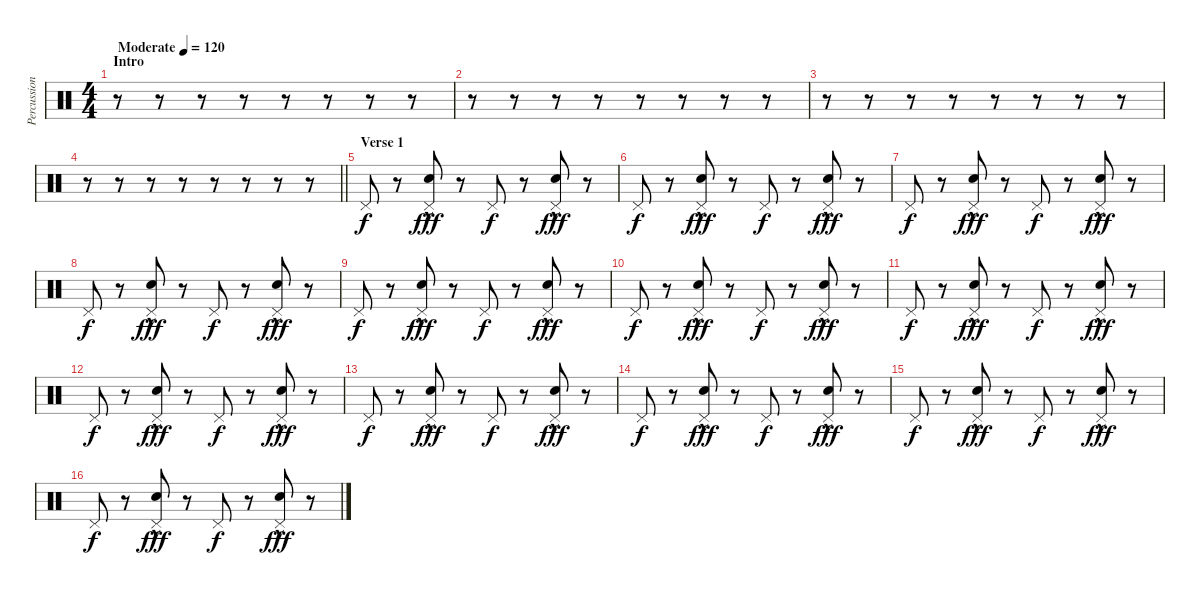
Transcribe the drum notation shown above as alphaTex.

\track ("Percussion" "Percussion") {instrument percussion}
\staff {score}
\articulation defaults
\ts (4 4)
\section ("" "Intro")
\tempo (120 "Moderate")
\tempo 139
\tempo (120 "Moderate")
\clef neutral
\ks c
r.8{dy f} r.8 r.8 r.8 r.8 r.8 r.8 r.8 |
r.8 r.8 r.8 r.8 r.8 r.8 r.8 r.8 |
r.8 r.8 r.8 r.8 r.8 r.8 r.8 r.8 |
\barLineRight lightlight
r.8 r.8 r.8 r.8 r.8 r.8 r.8 r.8 |
\section ("" "Verse 1")
"Pedal Hi-Hat (hit)".8 r.8 ("Snare (hit) 2"{hac} "Pedal Hi-Hat (hit)").8{dy fff} r.8 "Pedal Hi-Hat (hit)".8{dy f} r.8 ("Snare (hit) 2"{hac} "Pedal Hi-Hat (hit)").8{dy fff} r.8 |
"Pedal Hi-Hat (hit)".8{dy f} r.8 ("Snare (hit) 2"{hac} "Pedal Hi-Hat (hit)").8{dy fff} r.8 "Pedal Hi-Hat (hit)".8{dy f} r.8 ("Snare (hit) 2"{hac} "Pedal Hi-Hat (hit)").8{dy fff} r.8 |
"Pedal Hi-Hat (hit)".8{dy f} r.8 ("Snare (hit) 2"{hac} "Pedal Hi-Hat (hit)").8{dy fff} r.8 "Pedal Hi-Hat (hit)".8{dy f} r.8 ("Snare (hit) 2"{hac} "Pedal Hi-Hat (hit)").8{dy fff} r.8 |
"Pedal Hi-Hat (hit)".8{dy f} r.8 ("Snare (hit) 2"{hac} "Pedal Hi-Hat (hit)").8{dy fff} r.8 "Pedal Hi-Hat (hit)".8{dy f} r.8 ("Snare (hit) 2"{hac} "Pedal Hi-Hat (hit)").8{dy fff} r.8 |
"Pedal Hi-Hat (hit)".8{dy f} r.8 ("Snare (hit) 2"{hac} "Pedal Hi-Hat (hit)").8{dy fff} r.8 "Pedal Hi-Hat (hit)".8{dy f} r.8 ("Snare (hit) 2"{hac} "Pedal Hi-Hat (hit)").8{dy fff} r.8 |
"Pedal Hi-Hat (hit)".8{dy f} r.8 ("Snare (hit) 2"{hac} "Pedal Hi-Hat (hit)").8{dy fff} r.8 "Pedal Hi-Hat (hit)".8{dy f} r.8 ("Snare (hit) 2"{hac} "Pedal Hi-Hat (hit)").8{dy fff} r.8 |
"Pedal Hi-Hat (hit)".8{dy f} r.8 ("Snare (hit) 2"{hac} "Pedal Hi-Hat (hit)").8{dy fff} r.8 "Pedal Hi-Hat (hit)".8{dy f} r.8 ("Snare (hit) 2"{hac} "Pedal Hi-Hat (hit)").8{dy fff} r.8 |
"Pedal Hi-Hat (hit)".8{dy f} r.8 ("Snare (hit) 2"{hac} "Pedal Hi-Hat (hit)").8{dy fff} r.8 "Pedal Hi-Hat (hit)".8{dy f} r.8 ("Snare (hit) 2"{hac} "Pedal Hi-Hat (hit)").8{dy fff} r.8 |
"Pedal Hi-Hat (hit)".8{dy f} r.8 ("Snare (hit) 2"{hac} "Pedal Hi-Hat (hit)").8{dy fff} r.8 "Pedal Hi-Hat (hit)".8{dy f} r.8 ("Snare (hit) 2"{hac} "Pedal Hi-Hat (hit)").8{dy fff} r.8 |
"Pedal Hi-Hat (hit)".8{dy f} r.8 ("Snare (hit) 2"{hac} "Pedal Hi-Hat (hit)").8{dy fff} r.8 "Pedal Hi-Hat (hit)".8{dy f} r.8 ("Snare (hit) 2"{hac} "Pedal Hi-Hat (hit)").8{dy fff} r.8 |
"Pedal Hi-Hat (hit)".8{dy f} r.8 ("Snare (hit) 2"{hac} "Pedal Hi-Hat (hit)").8{dy fff} r.8 "Pedal Hi-Hat (hit)".8{dy f} r.8 ("Snare (hit) 2"{hac} "Pedal Hi-Hat (hit)").8{dy fff} r.8 |
"Pedal Hi-Hat (hit)".8{dy f} r.8 ("Snare (hit) 2"{hac} "Pedal Hi-Hat (hit)").8{dy fff} r.8 "Pedal Hi-Hat (hit)".8{dy f} r.8 ("Snare (hit) 2"{hac} "Pedal Hi-Hat (hit)").8{dy fff} r.8
